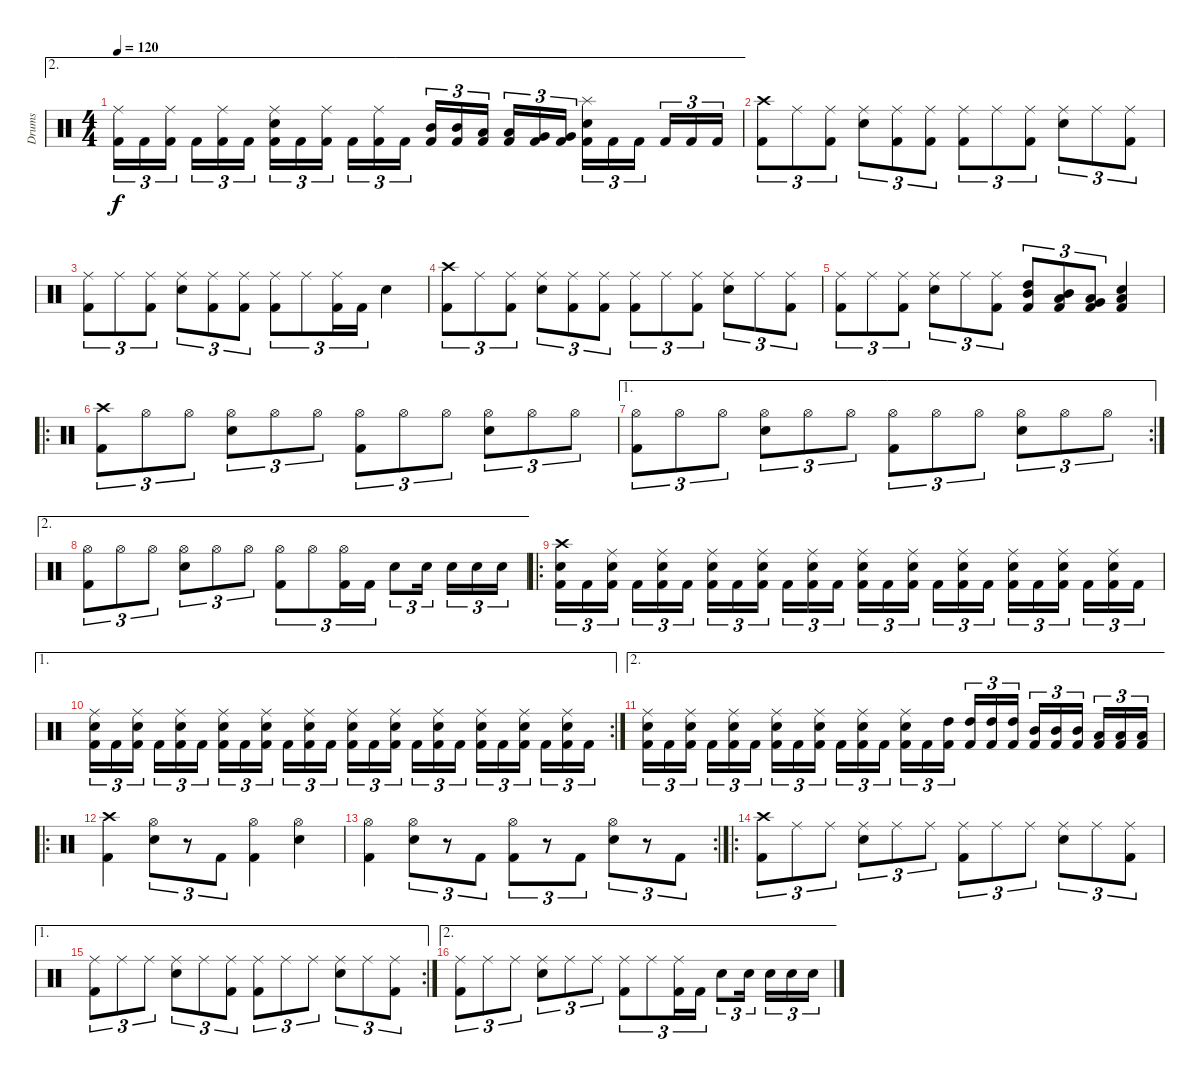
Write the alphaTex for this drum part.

\track ("Drums" "Drums") {instrument percussion}
\staff {score}
\articulation defaults
\ae 2
\ts (4 4)
\tempo 120
\clef neutral
\ks c
("Ride (middle)" "Kick (hit) 2").16{tu (3 2) dy f} "Kick (hit) 2".16{tu (3 2)} ("Ride (middle)" "Kick (hit) 2").16{tu (3 2)} "Kick (hit) 2".16{tu (3 2)} ("Ride (middle)" "Kick (hit) 2").16{tu (3 2)} "Kick (hit) 2".16{tu (3 2)} ("Ride (middle)" "Electric Snare (hit)" "Kick (hit) 2").16{tu (3 2)} "Kick (hit) 2".16{tu (3 2)} ("Ride (middle)" "Kick (hit) 2").16{tu (3 2)} "Kick (hit) 2".16{tu (3 2)} ("Ride (middle)" "Kick (hit) 2").16{tu (3 2)} "Kick (hit) 2".16{tu (3 2)} ("Mid Tom (hit)" "Kick (hit) 2").16{tu (3 2)} ("Mid Tom (hit)" "Kick (hit) 2").16{tu (3 2)} ("Low Tom (hit)" "Kick (hit) 2").16{tu (3 2)} ("Low Tom (hit)" "Kick (hit) 2").16{tu (3 2)} ("Very Low Tom (hit)" "Kick (hit) 2").16{tu (3 2)} ("Very Low Tom (hit)" "Kick (hit) 2").16{tu (3 2)} ("Splash (hit)" "Electric Snare (hit)" "Kick (hit) 2").16{tu (3 2)} "Kick (hit) 2".16{tu (3 2)} "Kick (hit) 2".16{tu (3 2)} "Kick (hit) 2".16{tu (3 2)} "Kick (hit) 2".16{tu (3 2)} "Kick (hit) 2".16{tu (3 2)} |
("Crash high (hit)" "Kick (hit) 2").8{tu (3 2)} "Ride (middle)".8{tu (3 2)} ("Ride (middle)" "Kick (hit) 2").8{tu (3 2)} ("Ride (middle)" "Electric Snare (hit)").8{tu (3 2)} ("Ride (middle)" "Kick (hit) 2").8{tu (3 2)} ("Ride (middle)" "Kick (hit) 2").8{tu (3 2)} ("Ride (middle)" "Kick (hit) 2").8{tu (3 2)} "Ride (middle)".8{tu (3 2)} ("Ride (middle)" "Kick (hit) 2").8{tu (3 2)} ("Ride (middle)" "Electric Snare (hit)").8{tu (3 2)} "Ride (middle)".8{tu (3 2)} ("Ride (middle)" "Kick (hit) 2").8{tu (3 2)} |
("Ride (middle)" "Kick (hit) 2").8{tu (3 2)} "Ride (middle)".8{tu (3 2)} ("Ride (middle)" "Kick (hit) 2").8{tu (3 2)} ("Ride (middle)" "Electric Snare (hit)").8{tu (3 2)} ("Ride (middle)" "Kick (hit) 2").8{tu (3 2)} ("Ride (middle)" "Kick (hit) 2").8{tu (3 2)} ("Ride (middle)" "Kick (hit) 2").8{tu (3 2)} "Ride (middle)".8{tu (3 2)} ("Ride (middle)" "Kick (hit) 2").16{tu (3 2)} "Kick (hit) 2".16{tu (3 2)} "Electric Snare (hit)".4 |
("Crash high (hit)" "Kick (hit) 2").8{tu (3 2)} "Ride (middle)".8{tu (3 2)} ("Ride (middle)" "Kick (hit) 2").8{tu (3 2)} ("Ride (middle)" "Electric Snare (hit)").8{tu (3 2)} ("Ride (middle)" "Kick (hit) 2").8{tu (3 2)} ("Ride (middle)" "Kick (hit) 2").8{tu (3 2)} ("Ride (middle)" "Kick (hit) 2").8{tu (3 2)} "Ride (middle)".8{tu (3 2)} ("Ride (middle)" "Kick (hit) 2").8{tu (3 2)} ("Ride (middle)" "Electric Snare (hit)").8{tu (3 2)} "Ride (middle)".8{tu (3 2)} ("Ride (middle)" "Kick (hit) 2").8{tu (3 2)} |
("Ride (middle)" "Kick (hit) 2").8{tu (3 2)} "Ride (middle)".8{tu (3 2)} ("Ride (middle)" "Kick (hit) 2").8{tu (3 2)} ("Ride (middle)" "Electric Snare (hit)").8{tu (3 2)} "Ride (middle)".8{tu (3 2)} ("Ride (middle)" "Kick (hit) 2").8{tu (3 2)} ("High Tom (hit)" "Mid Tom (hit)" "Kick (hit) 2").8{tu (3 2)} ("Mid Tom (hit)" "Low Tom (hit)" "Kick (hit) 2").8{tu (3 2)} ("Low Tom (hit)" "Very Low Tom (hit)" "Kick (hit) 2").8{tu (3 2)} ("Low Floor Tom (hit)" "Electric Snare (hit)" "Kick (hit) 2").4 |
\ro
("Crash high (hit)" "Kick (hit) 2").8{tu (3 2)} "Hi-Hat (open)".8{tu (3 2)} "Hi-Hat (open)".8{tu (3 2)} ("Hi-Hat (open)" "Electric Snare (hit)").8{tu (3 2)} "Hi-Hat (open)".8{tu (3 2)} "Hi-Hat (open)".8{tu (3 2)} ("Hi-Hat (open)" "Kick (hit) 2").8{tu (3 2)} "Hi-Hat (open)".8{tu (3 2)} "Hi-Hat (open)".8{tu (3 2)} ("Hi-Hat (open)" "Electric Snare (hit)").8{tu (3 2)} "Hi-Hat (open)".8{tu (3 2)} "Hi-Hat (open)".8{tu (3 2)} |
\ae 1
\rc 2
("Hi-Hat (open)" "Kick (hit) 2").8{tu (3 2)} "Hi-Hat (open)".8{tu (3 2)} "Hi-Hat (open)".8{tu (3 2)} ("Hi-Hat (open)" "Electric Snare (hit)").8{tu (3 2)} "Hi-Hat (open)".8{tu (3 2)} "Hi-Hat (open)".8{tu (3 2)} ("Hi-Hat (open)" "Kick (hit) 2").8{tu (3 2)} "Hi-Hat (open)".8{tu (3 2)} "Hi-Hat (open)".8{tu (3 2)} ("Hi-Hat (open)" "Electric Snare (hit)").8{tu (3 2)} "Hi-Hat (open)".8{tu (3 2)} "Hi-Hat (open)".8{tu (3 2)} |
\ae 2
("Hi-Hat (open)" "Kick (hit) 2").8{tu (3 2)} "Hi-Hat (open)".8{tu (3 2)} "Hi-Hat (open)".8{tu (3 2)} ("Hi-Hat (open)" "Electric Snare (hit)").8{tu (3 2)} "Hi-Hat (open)".8{tu (3 2)} "Hi-Hat (open)".8{tu (3 2)} ("Hi-Hat (open)" "Kick (hit) 2").8{tu (3 2)} "Hi-Hat (open)".8{tu (3 2)} ("Hi-Hat (open)" "Kick (hit) 2").16{tu (3 2)} "Kick (hit) 2".16{tu (3 2)} "Electric Snare (hit)".8{tu (3 2)} "Electric Snare (hit)".16{tu (3 2)} "Electric Snare (hit)".16{tu (3 2)} "Electric Snare (hit)".16{tu (3 2)} "Electric Snare (hit)".16{tu (3 2)} |
\ro
("Crash high (hit)" "Electric Snare (hit)" "Kick (hit) 2").16{tu (3 2)} "Kick (hit) 2".16{tu (3 2)} ("Ride (middle)" "Electric Snare (hit)" "Kick (hit) 2").16{tu (3 2)} "Kick (hit) 2".16{tu (3 2)} ("Ride (middle)" "Electric Snare (hit)" "Kick (hit) 2").16{tu (3 2)} "Kick (hit) 2".16{tu (3 2)} ("Ride (middle)" "Electric Snare (hit)" "Kick (hit) 2").16{tu (3 2)} "Kick (hit) 2".16{tu (3 2)} ("Ride (middle)" "Electric Snare (hit)" "Kick (hit) 2").16{tu (3 2)} "Kick (hit) 2".16{tu (3 2)} ("Ride (middle)" "Electric Snare (hit)" "Kick (hit) 2").16{tu (3 2)} "Kick (hit) 2".16{tu (3 2)} ("Ride (middle)" "Electric Snare (hit)" "Kick (hit) 2").16{tu (3 2)} "Kick (hit) 2".16{tu (3 2)} ("Ride (middle)" "Electric Snare (hit)" "Kick (hit) 2").16{tu (3 2)} "Kick (hit) 2".16{tu (3 2)} ("Ride (middle)" "Electric Snare (hit)" "Kick (hit) 2").16{tu (3 2)} "Kick (hit) 2".16{tu (3 2)} ("Ride (middle)" "Electric Snare (hit)" "Kick (hit) 2").16{tu (3 2)} "Kick (hit) 2".16{tu (3 2)} ("Ride (middle)" "Electric Snare (hit)" "Kick (hit) 2").16{tu (3 2)} "Kick (hit) 2".16{tu (3 2)} ("Ride (middle)" "Electric Snare (hit)" "Kick (hit) 2").16{tu (3 2)} "Kick (hit) 2".16{tu (3 2)} |
\ae 1
\rc 2
("Ride (middle)" "Electric Snare (hit)" "Kick (hit) 2").16{tu (3 2)} "Kick (hit) 2".16{tu (3 2)} ("Ride (middle)" "Electric Snare (hit)" "Kick (hit) 2").16{tu (3 2)} "Kick (hit) 2".16{tu (3 2)} ("Ride (middle)" "Electric Snare (hit)" "Kick (hit) 2").16{tu (3 2)} "Kick (hit) 2".16{tu (3 2)} ("Ride (middle)" "Electric Snare (hit)" "Kick (hit) 2").16{tu (3 2)} "Kick (hit) 2".16{tu (3 2)} ("Ride (middle)" "Electric Snare (hit)" "Kick (hit) 2").16{tu (3 2)} "Kick (hit) 2".16{tu (3 2)} ("Ride (middle)" "Electric Snare (hit)" "Kick (hit) 2").16{tu (3 2)} "Kick (hit) 2".16{tu (3 2)} ("Ride (middle)" "Electric Snare (hit)" "Kick (hit) 2").16{tu (3 2)} "Kick (hit) 2".16{tu (3 2)} ("Ride (middle)" "Electric Snare (hit)" "Kick (hit) 2").16{tu (3 2)} "Kick (hit) 2".16{tu (3 2)} ("Ride (middle)" "Electric Snare (hit)" "Kick (hit) 2").16{tu (3 2)} "Kick (hit) 2".16{tu (3 2)} ("Ride (middle)" "Electric Snare (hit)" "Kick (hit) 2").16{tu (3 2)} "Kick (hit) 2".16{tu (3 2)} ("Ride (middle)" "Electric Snare (hit)" "Kick (hit) 2").16{tu (3 2)} "Kick (hit) 2".16{tu (3 2)} ("Ride (middle)" "Electric Snare (hit)" "Kick (hit) 2").16{tu (3 2)} "Kick (hit) 2".16{tu (3 2)} |
\ae 2
("Ride (middle)" "Electric Snare (hit)" "Kick (hit) 2").16{tu (3 2)} "Kick (hit) 2".16{tu (3 2)} ("Ride (middle)" "Electric Snare (hit)" "Kick (hit) 2").16{tu (3 2)} "Kick (hit) 2".16{tu (3 2)} ("Ride (middle)" "Electric Snare (hit)" "Kick (hit) 2").16{tu (3 2)} "Kick (hit) 2".16{tu (3 2)} ("Ride (middle)" "Electric Snare (hit)" "Kick (hit) 2").16{tu (3 2)} "Kick (hit) 2".16{tu (3 2)} ("Ride (middle)" "Electric Snare (hit)" "Kick (hit) 2").16{tu (3 2)} "Kick (hit) 2".16{tu (3 2)} ("Ride (middle)" "Electric Snare (hit)" "Kick (hit) 2").16{tu (3 2)} "Kick (hit) 2".16{tu (3 2)} ("Ride (middle)" "Electric Snare (hit)" "Kick (hit) 2").16{tu (3 2)} "Kick (hit) 2".16{tu (3 2)} ("High Tom (hit)" "Kick (hit) 2").16{tu (3 2)} ("High Tom (hit)" "Kick (hit) 2").16{tu (3 2)} ("High Tom (hit)" "Kick (hit) 2").16{tu (3 2)} ("High Tom (hit)" "Kick (hit) 2").16{tu (3 2)} ("Mid Tom (hit)" "Kick (hit) 2").16{tu (3 2)} ("Mid Tom (hit)" "Kick (hit) 2").16{tu (3 2)} ("Mid Tom (hit)" "Kick (hit) 2").16{tu (3 2)} ("Low Tom (hit)" "Kick (hit) 2").16{tu (3 2)} ("Low Tom (hit)" "Kick (hit) 2").16{tu (3 2)} ("Low Tom (hit)" "Kick (hit) 2").16{tu (3 2)} |
\ro
("Crash high (hit)" "Kick (hit) 2").4 ("Hi-Hat (open)" "Electric Snare (hit)").8{tu (3 2)} r.8{tu (3 2)} "Kick (hit) 2".8{tu (3 2)} ("Hi-Hat (open)" "Kick (hit) 2").4 ("Hi-Hat (open)" "Electric Snare (hit)").4 |
\rc 2
("Hi-Hat (open)" "Kick (hit) 2").4 ("Hi-Hat (open)" "Electric Snare (hit)").8{tu (3 2)} r.8{tu (3 2)} "Kick (hit) 2".8{tu (3 2)} ("Hi-Hat (open)" "Kick (hit) 2").8{tu (3 2)} r.8{tu (3 2)} "Kick (hit) 2".8{tu (3 2)} ("Hi-Hat (open)" "Electric Snare (hit)").8{tu (3 2)} r.8{tu (3 2)} "Kick (hit) 2".8{tu (3 2)} |
\ro
("Crash high (hit)" "Kick (hit) 2").8{tu (3 2)} "Ride (middle)".8{tu (3 2)} "Ride (middle)".8{tu (3 2)} ("Ride (middle)" "Electric Snare (hit)").8{tu (3 2)} "Ride (middle)".8{tu (3 2)} "Ride (middle)".8{tu (3 2)} ("Ride (middle)" "Kick (hit) 2").8{tu (3 2)} "Ride (middle)".8{tu (3 2)} "Ride (middle)".8{tu (3 2)} ("Ride (middle)" "Electric Snare (hit)").8{tu (3 2)} "Ride (middle)".8{tu (3 2)} ("Ride (middle)" "Kick (hit) 2").8{tu (3 2)} |
\ae 1
\rc 2
("Ride (middle)" "Kick (hit) 2").8{tu (3 2)} "Ride (middle)".8{tu (3 2)} "Ride (middle)".8{tu (3 2)} ("Ride (middle)" "Electric Snare (hit)").8{tu (3 2)} "Ride (middle)".8{tu (3 2)} ("Ride (middle)" "Kick (hit) 2").8{tu (3 2)} ("Ride (middle)" "Kick (hit) 2").8{tu (3 2)} "Ride (middle)".8{tu (3 2)} "Ride (middle)".8{tu (3 2)} ("Ride (middle)" "Electric Snare (hit)").8{tu (3 2)} "Ride (middle)".8{tu (3 2)} ("Ride (middle)" "Kick (hit) 2").8{tu (3 2)} |
\ae 2
("Ride (middle)" "Kick (hit) 2").8{tu (3 2)} "Ride (middle)".8{tu (3 2)} "Ride (middle)".8{tu (3 2)} ("Ride (middle)" "Electric Snare (hit)").8{tu (3 2)} "Ride (middle)".8{tu (3 2)} "Ride (middle)".8{tu (3 2)} ("Ride (middle)" "Kick (hit) 2").8{tu (3 2)} "Ride (middle)".8{tu (3 2)} ("Ride (middle)" "Kick (hit) 2").16{tu (3 2)} "Kick (hit) 2".16{tu (3 2)} "Electric Snare (hit)".8{tu (3 2)} "Electric Snare (hit)".16{tu (3 2)} "Electric Snare (hit)".16{tu (3 2)} "Electric Snare (hit)".16{tu (3 2)} "Electric Snare (hit)".16{tu (3 2)}
